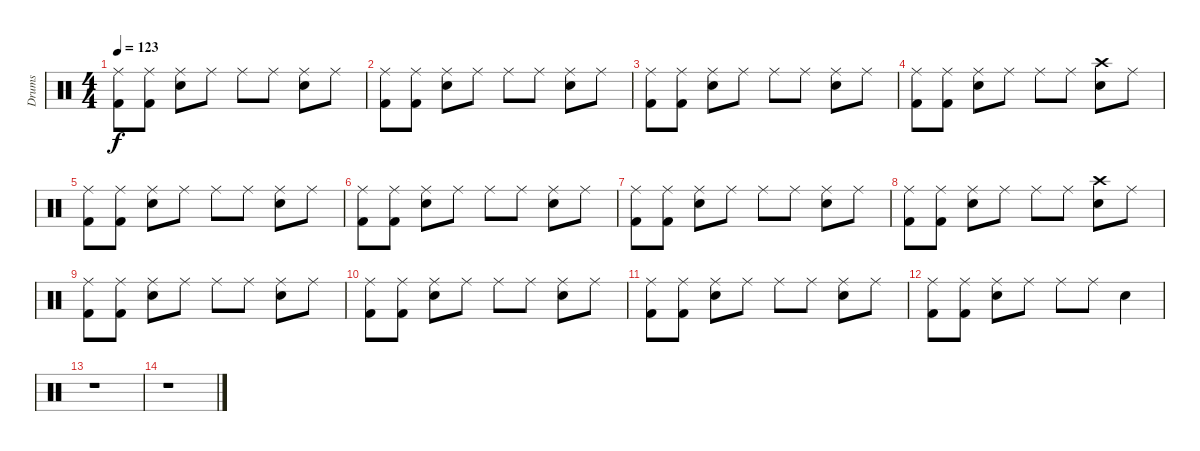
\track ("Drums" "Drums") {instrument percussion}
\staff {score}
\articulation defaults
\ts (4 4)
\tempo 123
\clef neutral
\ks c
("Ride (middle)" "Kick (hit) 2").8{dy f} ("Ride (middle)" "Kick (hit) 2").8 ("Ride (middle)" "Snare (hit) 2").8 "Ride (middle)".8 "Ride (middle)".8 "Ride (middle)".8 ("Ride (middle)" "Snare (hit) 2").8 "Ride (middle)".8 |
("Ride (middle)" "Kick (hit) 2").8 ("Ride (middle)" "Kick (hit) 2").8 ("Ride (middle)" "Snare (hit) 2").8 "Ride (middle)".8 "Ride (middle)".8 "Ride (middle)".8 ("Ride (middle)" "Snare (hit) 2").8 "Ride (middle)".8 |
("Ride (middle)" "Kick (hit) 2").8 ("Ride (middle)" "Kick (hit) 2").8 ("Ride (middle)" "Snare (hit) 2").8 "Ride (middle)".8 "Ride (middle)".8 "Ride (middle)".8 ("Ride (middle)" "Snare (hit) 2").8 "Ride (middle)".8 |
("Ride (middle)" "Kick (hit) 2").8 ("Ride (middle)" "Kick (hit) 2").8 ("Ride (middle)" "Snare (hit) 2").8 "Ride (middle)".8 "Ride (middle)".8 "Ride (middle)".8 ("Crash high (hit)" "Snare (hit) 2").8 "Ride (middle)".8 |
("Ride (middle)" "Kick (hit) 2").8 ("Ride (middle)" "Kick (hit) 2").8 ("Ride (middle)" "Snare (hit) 2").8 "Ride (middle)".8 "Ride (middle)".8 "Ride (middle)".8 ("Ride (middle)" "Snare (hit) 2").8 "Ride (middle)".8 |
("Ride (middle)" "Kick (hit) 2").8 ("Ride (middle)" "Kick (hit) 2").8 ("Ride (middle)" "Snare (hit) 2").8 "Ride (middle)".8 "Ride (middle)".8 "Ride (middle)".8 ("Ride (middle)" "Snare (hit) 2").8 "Ride (middle)".8 |
("Ride (middle)" "Kick (hit) 2").8 ("Ride (middle)" "Kick (hit) 2").8 ("Ride (middle)" "Snare (hit) 2").8 "Ride (middle)".8 "Ride (middle)".8 "Ride (middle)".8 ("Ride (middle)" "Snare (hit) 2").8 "Ride (middle)".8 |
("Ride (middle)" "Kick (hit) 2").8 ("Ride (middle)" "Kick (hit) 2").8 ("Ride (middle)" "Snare (hit) 2").8 "Ride (middle)".8 "Ride (middle)".8 "Ride (middle)".8 ("Crash high (hit)" "Snare (hit) 2").8 "Ride (middle)".8 |
("Ride (middle)" "Kick (hit) 2").8 ("Ride (middle)" "Kick (hit) 2").8 ("Ride (middle)" "Snare (hit) 2").8 "Ride (middle)".8 "Ride (middle)".8 "Ride (middle)".8 ("Ride (middle)" "Snare (hit) 2").8 "Ride (middle)".8 |
("Ride (middle)" "Kick (hit) 2").8 ("Ride (middle)" "Kick (hit) 2").8 ("Ride (middle)" "Snare (hit) 2").8 "Ride (middle)".8 "Ride (middle)".8 "Ride (middle)".8 ("Ride (middle)" "Snare (hit) 2").8 "Ride (middle)".8 |
("Ride (middle)" "Kick (hit) 2").8 ("Ride (middle)" "Kick (hit) 2").8 ("Ride (middle)" "Snare (hit) 2").8 "Ride (middle)".8 "Ride (middle)".8 "Ride (middle)".8 ("Ride (middle)" "Snare (hit) 2").8 "Ride (middle)".8 |
("Ride (middle)" "Kick (hit) 2").8 ("Ride (middle)" "Kick (hit) 2").8 ("Ride (middle)" "Snare (hit) 2").8 "Ride (middle)".8 "Ride (middle)".8 "Ride (middle)".8 "Snare (hit) 2".4 |
r.1 |
r.1
